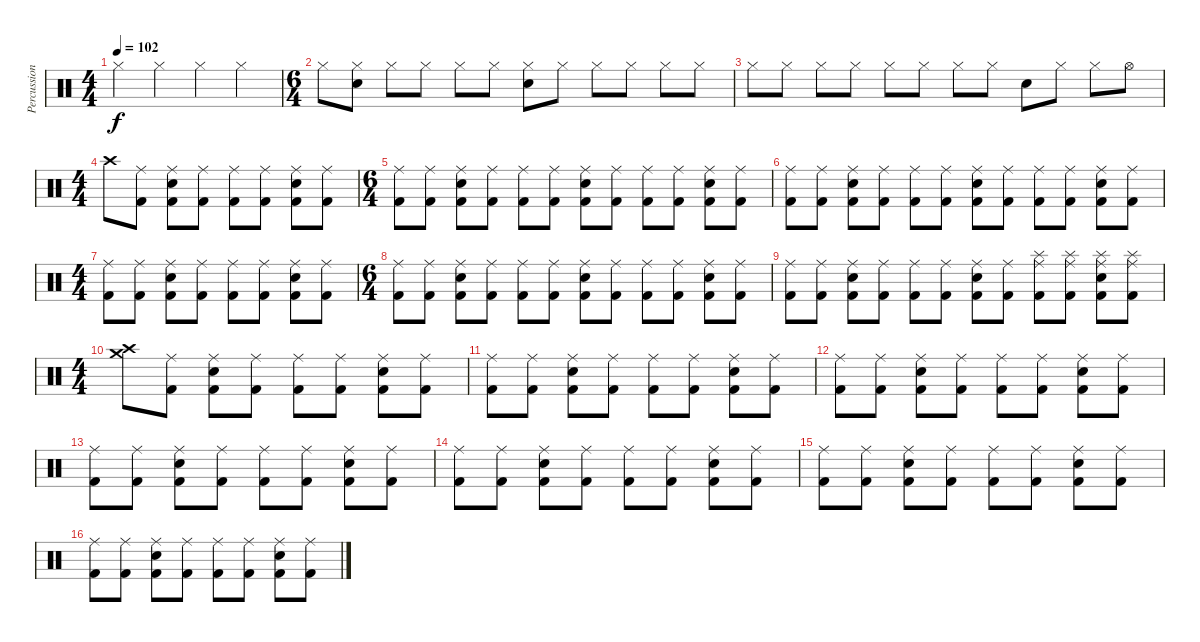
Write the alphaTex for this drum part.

\track ("Percussions" "Percussion") {instrument percussion}
\staff {score}
\articulation defaults
\ts (4 4)
\tempo 102
\clef neutral
\ks c "Hi-Hat (closed)".4{dy f} "Hi-Hat (closed)".4 "Hi-Hat (closed)".4 "Hi-Hat (closed)".4
|
\ts (6 4)
"Hi-Hat (closed)".8 ("Hi-Hat (closed)" "Electric Snare (hit)").8 "Hi-Hat (closed)".8 "Hi-Hat (closed)".8 "Hi-Hat (closed)".8 "Hi-Hat (closed)".8 ("Hi-Hat (closed)" "Electric Snare (hit)").8 "Hi-Hat (closed)".8 "Hi-Hat (closed)".8 "Hi-Hat (closed)".8 "Hi-Hat (closed)".8 "Hi-Hat (closed)".8 |
"Hi-Hat (closed)".8 "Hi-Hat (closed)".8 "Hi-Hat (closed)".8 "Hi-Hat (closed)".8 "Hi-Hat (closed)".8 "Hi-Hat (closed)".8 "Hi-Hat (closed)".8 "Hi-Hat (closed)".8 "Electric Snare (hit)".8 "Hi-Hat (closed)".8 "Hi-Hat (closed)".8 "Hi-Hat (open)".8 |
\ts (4 4)
"Crash high (hit)".8 ("Ride (middle)" "Kick (hit) 2").8 ("Electric Snare (hit)" "Ride (middle)" "Kick (hit) 2").8 ("Ride (middle)" "Kick (hit) 2").8 ("Ride (middle)" "Kick (hit) 2").8 ("Ride (middle)" "Kick (hit) 2").8 ("Electric Snare (hit)" "Ride (middle)" "Kick (hit) 2").8 ("Ride (middle)" "Kick (hit) 2").8 |
\ts (6 4)
("Ride (middle)" "Kick (hit) 2").8 ("Ride (middle)" "Kick (hit) 2").8 ("Electric Snare (hit)" "Ride (middle)" "Kick (hit) 2").8 ("Ride (middle)" "Kick (hit) 2").8 ("Ride (middle)" "Kick (hit) 2").8 ("Ride (middle)" "Kick (hit) 2").8 ("Electric Snare (hit)" "Ride (middle)" "Kick (hit) 2").8 ("Ride (middle)" "Kick (hit) 2").8 ("Ride (middle)" "Kick (hit) 2").8 ("Ride (middle)" "Kick (hit) 2").8 ("Electric Snare (hit)" "Ride (middle)" "Kick (hit) 2").8 ("Ride (middle)" "Kick (hit) 2").8 |
("Ride (middle)" "Kick (hit) 2").8 ("Ride (middle)" "Kick (hit) 2").8 ("Electric Snare (hit)" "Ride (middle)" "Kick (hit) 2").8 ("Ride (middle)" "Kick (hit) 2").8 ("Ride (middle)" "Kick (hit) 2").8 ("Ride (middle)" "Kick (hit) 2").8 ("Electric Snare (hit)" "Ride (middle)" "Kick (hit) 2").8 ("Ride (middle)" "Kick (hit) 2").8 ("Ride (middle)" "Kick (hit) 2").8 ("Ride (middle)" "Kick (hit) 2").8 ("Electric Snare (hit)" "Ride (middle)" "Kick (hit) 2").8 ("Ride (middle)" "Kick (hit) 2").8 |
\ts (4 4)
("Ride (middle)" "Kick (hit) 2").8 ("Ride (middle)" "Kick (hit) 2").8 ("Electric Snare (hit)" "Ride (middle)" "Kick (hit) 2").8 ("Ride (middle)" "Kick (hit) 2").8 ("Ride (middle)" "Kick (hit) 2").8 ("Ride (middle)" "Kick (hit) 2").8 ("Electric Snare (hit)" "Ride (middle)" "Kick (hit) 2").8 ("Ride (middle)" "Kick (hit) 2").8 |
\ts (6 4)
("Ride (middle)" "Kick (hit) 2").8 ("Ride (middle)" "Kick (hit) 2").8 ("Electric Snare (hit)" "Ride (middle)" "Kick (hit) 2").8 ("Ride (middle)" "Kick (hit) 2").8 ("Ride (middle)" "Kick (hit) 2").8 ("Ride (middle)" "Kick (hit) 2").8 ("Electric Snare (hit)" "Ride (middle)" "Kick (hit) 2").8 ("Ride (middle)" "Kick (hit) 2").8 ("Ride (middle)" "Kick (hit) 2").8 ("Ride (middle)" "Kick (hit) 2").8 ("Electric Snare (hit)" "Ride (middle)" "Kick (hit) 2").8 ("Ride (middle)" "Kick (hit) 2").8 |
("Ride (middle)" "Kick (hit) 2").8 ("Ride (middle)" "Kick (hit) 2").8 ("Electric Snare (hit)" "Ride (middle)" "Kick (hit) 2").8 ("Ride (middle)" "Kick (hit) 2").8 ("Ride (middle)" "Kick (hit) 2").8 ("Ride (middle)" "Kick (hit) 2").8 ("Electric Snare (hit)" "Ride (middle)" "Kick (hit) 2").8 ("Ride (middle)" "Kick (hit) 2").8 ("Splash (hit)" "Ride (middle)" "Kick (hit) 2").8 ("Splash (hit)" "Ride (middle)" "Kick (hit) 2").8 ("Splash (hit)" "Electric Snare (hit)" "Ride (middle)" "Kick (hit) 2").8 ("Splash (hit)" "Ride (middle)" "Kick (hit) 2").8 |
\ts (4 4)
("Crash medium (hit)" "Crash high (hit)").8 ("Ride (middle)" "Kick (hit) 2").8 ("Electric Snare (hit)" "Ride (middle)" "Kick (hit) 2").8 ("Ride (middle)" "Kick (hit) 2").8 ("Ride (middle)" "Kick (hit) 2").8 ("Ride (middle)" "Kick (hit) 2").8 ("Electric Snare (hit)" "Ride (middle)" "Kick (hit) 2").8 ("Ride (middle)" "Kick (hit) 2").8 |
("Ride (middle)" "Kick (hit) 2").8 ("Ride (middle)" "Kick (hit) 2").8 ("Electric Snare (hit)" "Ride (middle)" "Kick (hit) 2").8 ("Ride (middle)" "Kick (hit) 2").8 ("Ride (middle)" "Kick (hit) 2").8 ("Ride (middle)" "Kick (hit) 2").8 ("Electric Snare (hit)" "Ride (middle)" "Kick (hit) 2").8 ("Ride (middle)" "Kick (hit) 2").8 |
("Ride (middle)" "Kick (hit) 2").8 ("Ride (middle)" "Kick (hit) 2").8 ("Electric Snare (hit)" "Ride (middle)" "Kick (hit) 2").8 ("Ride (middle)" "Kick (hit) 2").8 ("Ride (middle)" "Kick (hit) 2").8 ("Ride (middle)" "Kick (hit) 2").8 ("Electric Snare (hit)" "Ride (middle)" "Kick (hit) 2").8 ("Ride (middle)" "Kick (hit) 2").8 |
("Ride (middle)" "Kick (hit) 2").8 ("Ride (middle)" "Kick (hit) 2").8 ("Electric Snare (hit)" "Ride (middle)" "Kick (hit) 2").8 ("Ride (middle)" "Kick (hit) 2").8 ("Ride (middle)" "Kick (hit) 2").8 ("Ride (middle)" "Kick (hit) 2").8 ("Electric Snare (hit)" "Ride (middle)" "Kick (hit) 2").8 ("Ride (middle)" "Kick (hit) 2").8 |
("Ride (middle)" "Kick (hit) 2").8 ("Ride (middle)" "Kick (hit) 2").8 ("Electric Snare (hit)" "Ride (middle)" "Kick (hit) 2").8 ("Ride (middle)" "Kick (hit) 2").8 ("Ride (middle)" "Kick (hit) 2").8 ("Ride (middle)" "Kick (hit) 2").8 ("Electric Snare (hit)" "Ride (middle)" "Kick (hit) 2").8 ("Ride (middle)" "Kick (hit) 2").8 |
("Ride (middle)" "Kick (hit) 2").8 ("Ride (middle)" "Kick (hit) 2").8 ("Electric Snare (hit)" "Ride (middle)" "Kick (hit) 2").8 ("Ride (middle)" "Kick (hit) 2").8 ("Ride (middle)" "Kick (hit) 2").8 ("Ride (middle)" "Kick (hit) 2").8 ("Electric Snare (hit)" "Ride (middle)" "Kick (hit) 2").8 ("Ride (middle)" "Kick (hit) 2").8 |
("Ride (middle)" "Kick (hit) 2").8 ("Ride (middle)" "Kick (hit) 2").8 ("Electric Snare (hit)" "Ride (middle)" "Kick (hit) 2").8 ("Ride (middle)" "Kick (hit) 2").8 ("Ride (middle)" "Kick (hit) 2").8 ("Ride (middle)" "Kick (hit) 2").8 ("Electric Snare (hit)" "Ride (middle)" "Kick (hit) 2").8 ("Ride (middle)" "Kick (hit) 2").8
